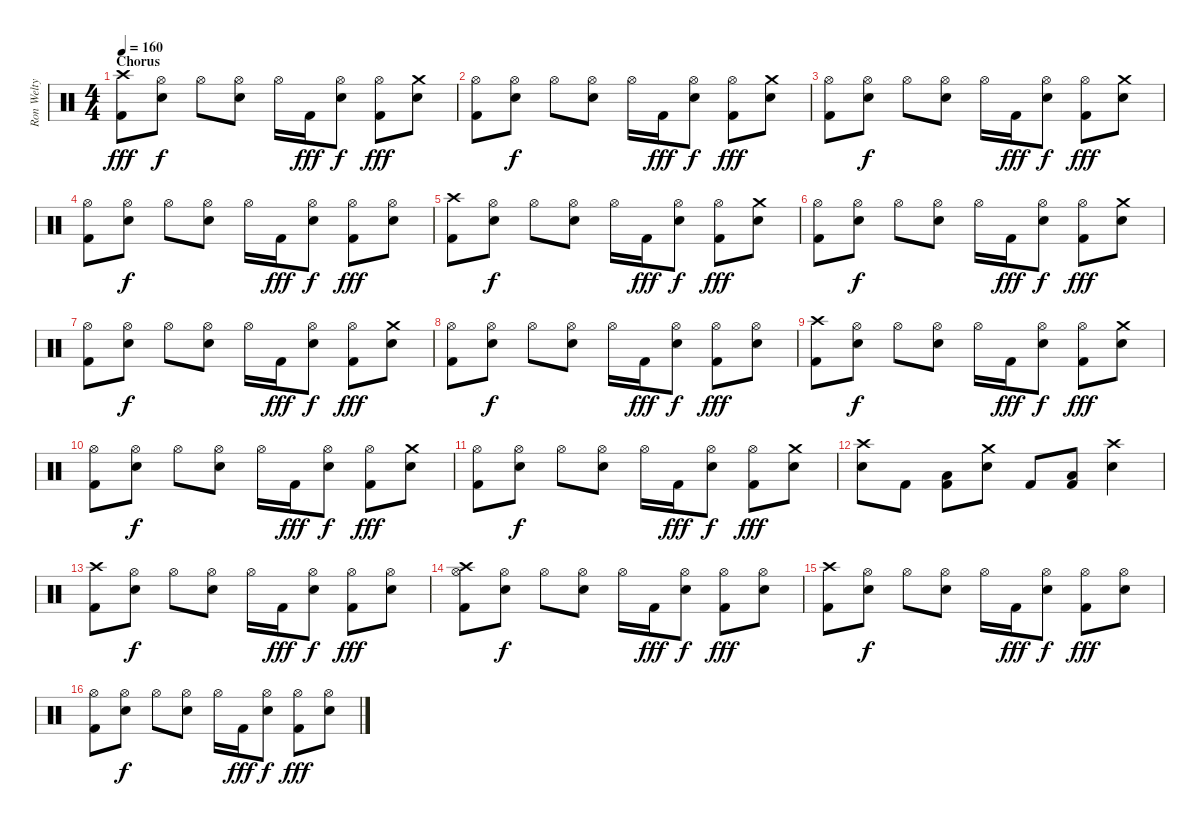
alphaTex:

\track ("Ron Welty" "Ron Welty") {instrument percussion}
\staff {score}
\articulation defaults
\ts (4 4)
\section ("" "Chorus")
\tempo 160
\clef neutral
\ks c
("Crash high (hit)" "Kick (hit) 2").8{dy fff} ("Hi-Hat (open)" "Snare (hit) 2").8{dy f} "Hi-Hat (open)".8 ("Hi-Hat (open)" "Snare (hit) 2").8 "Hi-Hat (open)".16 "Kick (hit) 2".16{dy fff} ("Hi-Hat (open)" "Snare (hit) 2").8{dy f} ("Hi-Hat (open)" "Kick (hit) 2").8{dy fff} ("Crash medium (hit)" "Snare (hit) 2").8 |
("Hi-Hat (open)" "Kick (hit) 2").8 ("Hi-Hat (open)" "Snare (hit) 2").8{dy f} "Hi-Hat (open)".8 ("Hi-Hat (open)" "Snare (hit) 2").8 "Hi-Hat (open)".16 "Kick (hit) 2".16{dy fff} ("Hi-Hat (open)" "Snare (hit) 2").8{dy f} ("Hi-Hat (open)" "Kick (hit) 2").8{dy fff} ("Crash medium (hit)" "Snare (hit) 2").8 |
("Hi-Hat (open)" "Kick (hit) 2").8 ("Hi-Hat (open)" "Snare (hit) 2").8{dy f} "Hi-Hat (open)".8 ("Hi-Hat (open)" "Snare (hit) 2").8 "Hi-Hat (open)".16 "Kick (hit) 2".16{dy fff} ("Hi-Hat (open)" "Snare (hit) 2").8{dy f} ("Hi-Hat (open)" "Kick (hit) 2").8{dy fff} ("Crash medium (hit)" "Snare (hit) 2").8 |
("Hi-Hat (open)" "Kick (hit) 2").8 ("Hi-Hat (open)" "Snare (hit) 2").8{dy f} "Hi-Hat (open)".8 ("Hi-Hat (open)" "Snare (hit) 2").8 "Hi-Hat (open)".16 "Kick (hit) 2".16{dy fff} ("Hi-Hat (open)" "Snare (hit) 2").8{dy f} ("Hi-Hat (open)" "Kick (hit) 2").8{dy fff} ("Hi-Hat (open)" "Snare (hit) 2").8 |
("Crash high (hit)" "Kick (hit) 2").8 ("Hi-Hat (open)" "Snare (hit) 2").8{dy f} "Hi-Hat (open)".8 ("Hi-Hat (open)" "Snare (hit) 2").8 "Hi-Hat (open)".16 "Kick (hit) 2".16{dy fff} ("Hi-Hat (open)" "Snare (hit) 2").8{dy f} ("Hi-Hat (open)" "Kick (hit) 2").8{dy fff} ("Crash medium (hit)" "Snare (hit) 2").8 |
("Hi-Hat (open)" "Kick (hit) 2").8 ("Hi-Hat (open)" "Snare (hit) 2").8{dy f} "Hi-Hat (open)".8 ("Hi-Hat (open)" "Snare (hit) 2").8 "Hi-Hat (open)".16 "Kick (hit) 2".16{dy fff} ("Hi-Hat (open)" "Snare (hit) 2").8{dy f} ("Hi-Hat (open)" "Kick (hit) 2").8{dy fff} ("Crash medium (hit)" "Snare (hit) 2").8 |
("Hi-Hat (open)" "Kick (hit) 2").8 ("Hi-Hat (open)" "Snare (hit) 2").8{dy f} "Hi-Hat (open)".8 ("Hi-Hat (open)" "Snare (hit) 2").8 "Hi-Hat (open)".16 "Kick (hit) 2".16{dy fff} ("Hi-Hat (open)" "Snare (hit) 2").8{dy f} ("Hi-Hat (open)" "Kick (hit) 2").8{dy fff} ("Crash medium (hit)" "Snare (hit) 2").8 |
("Hi-Hat (open)" "Kick (hit) 2").8 ("Hi-Hat (open)" "Snare (hit) 2").8{dy f} "Hi-Hat (open)".8 ("Hi-Hat (open)" "Snare (hit) 2").8 "Hi-Hat (open)".16 "Kick (hit) 2".16{dy fff} ("Hi-Hat (open)" "Snare (hit) 2").8{dy f} ("Hi-Hat (open)" "Kick (hit) 2").8{dy fff} ("Hi-Hat (open)" "Snare (hit) 2").8 |
("Crash high (hit)" "Kick (hit) 2").8 ("Hi-Hat (open)" "Snare (hit) 2").8{dy f} "Hi-Hat (open)".8 ("Hi-Hat (open)" "Snare (hit) 2").8 "Hi-Hat (open)".16 "Kick (hit) 2".16{dy fff} ("Hi-Hat (open)" "Snare (hit) 2").8{dy f} ("Hi-Hat (open)" "Kick (hit) 2").8{dy fff} ("Crash medium (hit)" "Snare (hit) 2").8 |
("Hi-Hat (open)" "Kick (hit) 2").8 ("Hi-Hat (open)" "Snare (hit) 2").8{dy f} "Hi-Hat (open)".8 ("Hi-Hat (open)" "Snare (hit) 2").8 "Hi-Hat (open)".16 "Kick (hit) 2".16{dy fff} ("Hi-Hat (open)" "Snare (hit) 2").8{dy f} ("Hi-Hat (open)" "Kick (hit) 2").8{dy fff} ("Crash medium (hit)" "Snare (hit) 2").8 |
("Hi-Hat (open)" "Kick (hit) 2").8 ("Hi-Hat (open)" "Snare (hit) 2").8{dy f} "Hi-Hat (open)".8 ("Hi-Hat (open)" "Snare (hit) 2").8 "Hi-Hat (open)".16 "Kick (hit) 2".16{dy fff} ("Hi-Hat (open)" "Snare (hit) 2").8{dy f} ("Hi-Hat (open)" "Kick (hit) 2").8{dy fff} ("Crash medium (hit)" "Snare (hit) 2").8 |
("Crash high (hit)" "Snare (hit) 2").8 "Kick (hit) 2".8 ("Low Tom (hit)" "Kick (hit) 2").8 ("Crash medium (hit)" "Snare (hit) 2").8 "Kick (hit) 2".8 ("Low Floor Tom (hit)" "Kick (hit) 2").8 ("Crash high (hit)" "Snare (hit) 2").4 |
("Crash high (hit)" "Kick (hit) 2").8 ("Hi-Hat (open)" "Snare (hit) 2").8{dy f} "Hi-Hat (open)".8 ("Hi-Hat (open)" "Snare (hit) 2").8 "Hi-Hat (open)".16 "Kick (hit) 2".16{dy fff} ("Hi-Hat (open)" "Snare (hit) 2").8{dy f} ("Hi-Hat (open)" "Kick (hit) 2").8{dy fff} ("Hi-Hat (open)" "Snare (hit) 2").8 |
("Crash high (hit)" "Hi-Hat (open)" "Kick (hit) 2").8 ("Hi-Hat (open)" "Snare (hit) 2").8{dy f} "Hi-Hat (open)".8 ("Hi-Hat (open)" "Snare (hit) 2").8 "Hi-Hat (open)".16 "Kick (hit) 2".16{dy fff} ("Hi-Hat (open)" "Snare (hit) 2").8{dy f} ("Hi-Hat (open)" "Kick (hit) 2").8{dy fff} ("Hi-Hat (open)" "Snare (hit) 2").8 |
("Crash high (hit)" "Kick (hit) 2").8 ("Hi-Hat (open)" "Snare (hit) 2").8{dy f} "Hi-Hat (open)".8 ("Hi-Hat (open)" "Snare (hit) 2").8 "Hi-Hat (open)".16 "Kick (hit) 2".16{dy fff} ("Hi-Hat (open)" "Snare (hit) 2").8{dy f} ("Hi-Hat (open)" "Kick (hit) 2").8{dy fff} ("Hi-Hat (open)" "Snare (hit) 2").8 |
("Hi-Hat (open)" "Kick (hit) 2").8 ("Hi-Hat (open)" "Snare (hit) 2").8{dy f} "Hi-Hat (open)".8 ("Hi-Hat (open)" "Snare (hit) 2").8 "Hi-Hat (open)".16 "Kick (hit) 2".16{dy fff} ("Hi-Hat (open)" "Snare (hit) 2").8{dy f} ("Hi-Hat (open)" "Kick (hit) 2").8{dy fff} ("Hi-Hat (open)" "Snare (hit) 2").8
